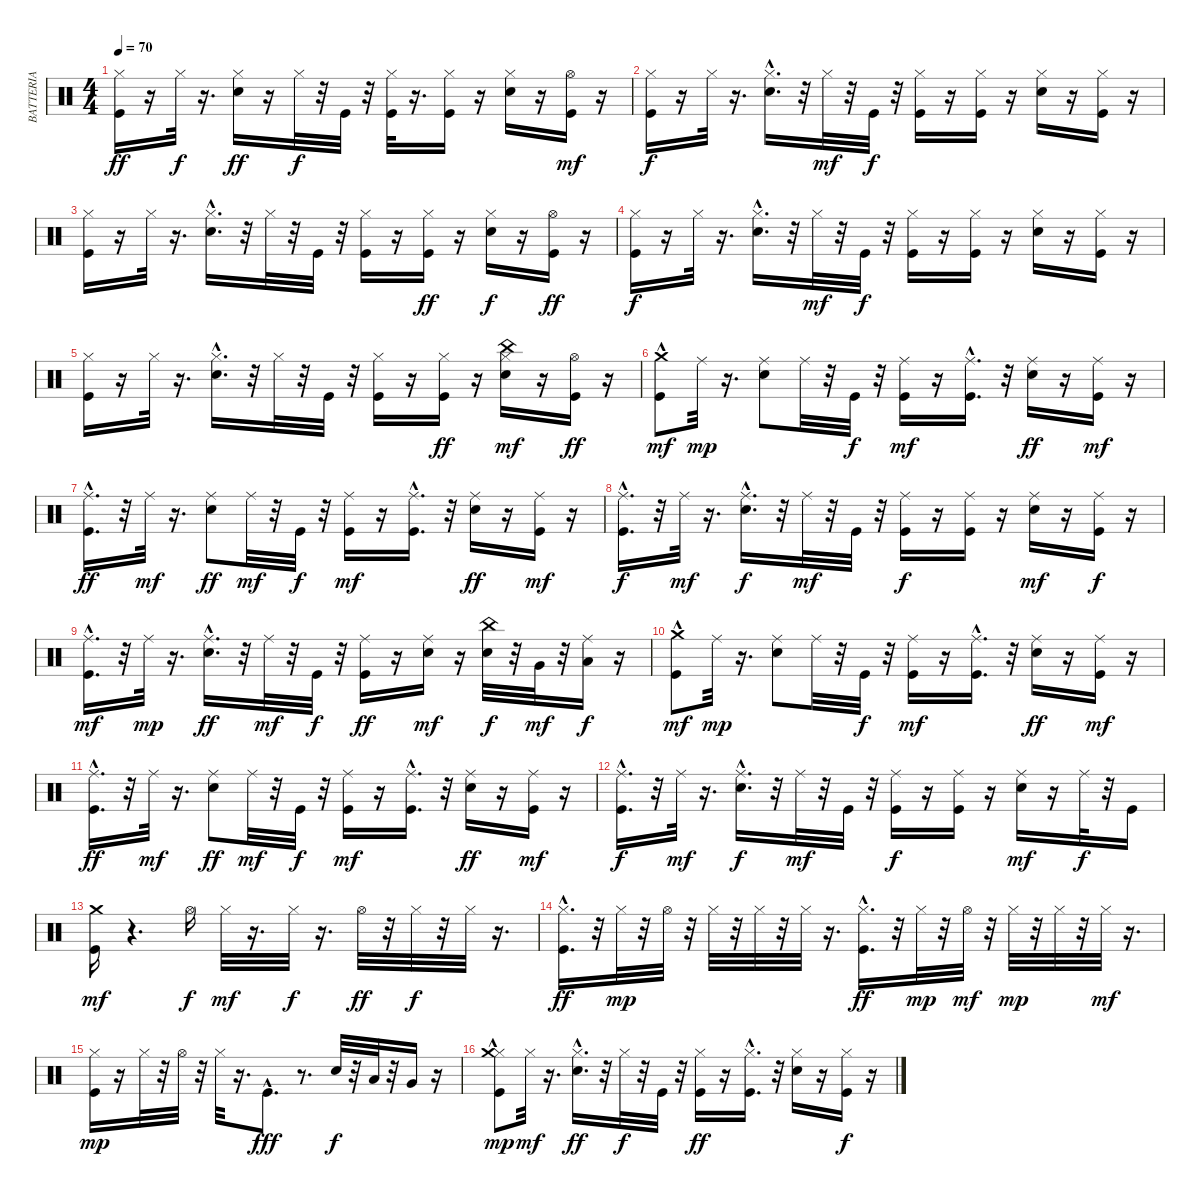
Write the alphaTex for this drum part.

\track ("BATTERIA" "BATTERIA") {instrument percussion}
\staff {score}
\articulation defaults
\ts (4 4)
\tempo 70
\clef neutral
\ks c
("Hi-Hat (closed)" "Kick (hit)").16{dy ff} r.16 "Hi-Hat (closed)".32{dy f} r.16{d} ("Hi-Hat (closed)" "Snare (hit) 2").16{dy ff} r.16 "Hi-Hat (closed)".32{dy f} r.32 "Kick (hit)".32 r.32 ("Kick (hit)" "Hi-Hat (closed)").32 r.16{d} ("Kick (hit)" "Hi-Hat (closed)").16 r.16 ("Snare (hit) 2" "Hi-Hat (closed)").16 r.16 ("Kick (hit)" "Hi-Hat (open)").16{dy mf} r.16 |
("Hi-Hat (closed)" "Kick (hit)").16{dy f} r.16 "Hi-Hat (closed)".32 r.16{d} ("Hi-Hat (closed)" "Snare (hit) 2"{hac}).16{d} r.32 "Hi-Hat (closed)".32{dy mf} r.32 "Kick (hit)".32{dy f} r.32 ("Hi-Hat (closed)" "Kick (hit)").16 r.16 ("Kick (hit)" "Hi-Hat (closed)").16 r.16 ("Snare (hit) 2" "Hi-Hat (closed)").16 r.16 ("Hi-Hat (closed)" "Kick (hit)").16 r.16 |
("Kick (hit)" "Hi-Hat (closed)").16 r.16 "Hi-Hat (closed)".32 r.16{d} ("Hi-Hat (closed)" "Snare (hit) 2"{hac}).16{d} r.32 "Hi-Hat (closed)".32 r.32 "Kick (hit)".32 r.32 ("Hi-Hat (closed)" "Kick (hit)").16 r.16 ("Kick (hit)" "Hi-Hat (closed)").16{dy ff} r.16 ("Hi-Hat (closed)" "Snare (hit) 2").16{dy f} r.16 ("Kick (hit)" "Hi-Hat (open)").16{dy ff} r.16 |
("Hi-Hat (closed)" "Kick (hit)").16{dy f} r.16 "Hi-Hat (closed)".32 r.16{d} ("Hi-Hat (closed)" "Snare (hit) 2"{hac}).16{d} r.32 "Hi-Hat (closed)".32{dy mf} r.32 "Kick (hit)".32{dy f} r.32 ("Hi-Hat (closed)" "Kick (hit)").16 r.16 ("Kick (hit)" "Hi-Hat (closed)").16 r.16 ("Snare (hit) 2" "Hi-Hat (closed)").16 r.16 ("Hi-Hat (closed)" "Kick (hit)").16 r.16 |
("Kick (hit)" "Hi-Hat (closed)").16 r.16 "Hi-Hat (closed)".32 r.16{d} ("Hi-Hat (closed)" "Snare (hit) 2"{hac}).16{d} r.32 "Hi-Hat (closed)".32 r.32 "Kick (hit)".32 r.32 ("Hi-Hat (closed)" "Kick (hit)").16 r.16 ("Kick (hit)" "Hi-Hat (closed)").16{dy ff} r.16 ("Hi-Hat (closed)" "Snare (hit) 2" "China (hit)").16{dy mf} r.16 ("Kick (hit)" "Hi-Hat (open)").16{dy ff} r.16 |
("Kick (hit)"{hac} "Crash medium (hit)").8{dy mf} "Ride (middle)".32{dy mp} r.16{d} ("Ride (middle)" "Snare (hit) 2").8 "Ride (middle)".32 r.32 "Kick (hit)".32{dy f} r.32 ("Ride (middle)" "Kick (hit)").16{dy mf} r.16 ("Ride (middle)" "Kick (hit)"{hac}).16{d} r.32 ("Ride (middle)" "Snare (hit) 2").16{dy ff} r.16 ("Ride (middle)" "Kick (hit)").16{dy mf} r.16 |
("Ride (middle)" "Kick (hit)"{hac}).16{d dy ff} r.32 "Ride (middle)".32{dy mf} r.16{d} ("Ride (middle)" "Snare (hit) 2").8{dy ff} "Ride (middle)".32{dy mf} r.32 "Kick (hit)".32{dy f} r.32 ("Ride (middle)" "Kick (hit)").16{dy mf} r.16 ("Ride (middle)" "Kick (hit)"{hac}).16{d} r.32 ("Ride (middle)" "Snare (hit) 2").16{dy ff} r.16 ("Ride (middle)" "Kick (hit)").16{dy mf} r.16 |
("Ride (middle)" "Kick (hit)"{hac}).16{d dy f} r.32 "Ride (middle)".32{dy mf} r.16{d} ("Ride (middle)" "Snare (hit) 2"{hac}).16{d dy f} r.32 "Ride (middle)".32{dy mf} r.32 "Kick (hit)".32 r.32 ("Ride (middle)" "Kick (hit)").16{dy f} r.16 ("Ride (middle)" "Kick (hit)").16 r.16 ("Ride (middle)" "Snare (hit) 2").16{dy mf} r.16 ("Ride (middle)" "Kick (hit)").16{dy f} r.16 |
("Ride (middle)" "Kick (hit)"{hac}).16{d dy mf} r.32 "Ride (middle)".32{dy mp} r.16{d} ("Ride (middle)" "Snare (hit) 2"{hac}).16{d dy ff} r.32 "Ride (middle)".32{dy mf} r.32 "Kick (hit)".32{dy f} r.32 ("Ride (middle)" "Kick (hit)").16{dy ff} r.16 ("Ride (middle)" "Snare (hit) 2").16{dy mf} r.16 ("China (hit)" "Snare (hit) 2").32{dy f} r.32 "Very Low Tom (hit)".32{dy mf} r.32 ("Ride (middle)" "Low Floor Tom (hit)").16{dy f} r.16 |
("Kick (hit)"{hac} "Crash medium (hit)").8{dy mf} "Ride (middle)".32{dy mp} r.16{d} ("Ride (middle)" "Snare (hit) 2").8 "Ride (middle)".32 r.32 "Kick (hit)".32{dy f} r.32 ("Ride (middle)" "Kick (hit)").16{dy mf} r.16 ("Ride (middle)" "Kick (hit)"{hac}).16{d} r.32 ("Ride (middle)" "Snare (hit) 2").16{dy ff} r.16 ("Ride (middle)" "Kick (hit)").16{dy mf} r.16 |
("Ride (middle)" "Kick (hit)"{hac}).16{d dy ff} r.32 "Ride (middle)".32{dy mf} r.16{d} ("Ride (middle)" "Snare (hit) 2").8{dy ff} "Ride (middle)".32{dy mf} r.32 "Kick (hit)".32{dy f} r.32 ("Ride (middle)" "Kick (hit)").16{dy mf} r.16 ("Ride (middle)" "Kick (hit)"{hac}).16{d} r.32 ("Ride (middle)" "Snare (hit) 2").16{dy ff} r.16 ("Ride (middle)" "Kick (hit)").16{dy mf} r.16 |
("Ride (middle)" "Kick (hit)"{hac}).16{d dy f} r.32 "Ride (middle)".32{dy mf} r.16{d} ("Ride (middle)" "Snare (hit) 2"{hac}).16{d dy f} r.32 "Ride (middle)".32{dy mf} r.32 "Kick (hit)".32 r.32 ("Ride (middle)" "Kick (hit)").16{dy f} r.16 ("Ride (middle)" "Kick (hit)").16 r.16 ("Ride (middle)" "Snare (hit) 2").16{dy mf} r.16 "Ride (middle)".32{dy f} r.32 "Kick (hit)".16 |
("Kick (hit)" "Crash medium (hit)").16{dy mf} r.4{d} "Hi-Hat (open)".16{dy f} "Hi-Hat (closed)".32{dy mf} r.16{d} "Hi-Hat (closed)".32{dy f} r.16{d} "Hi-Hat (open)".32{dy ff} r.32 "Hi-Hat (closed)".32{dy f} r.32 "Hi-Hat (closed)".32 r.16{d} |
("Hi-Hat (closed)" "Kick (hit)"{hac}).16{d dy ff} r.32 "Hi-Hat (closed)".32{dy mp} r.32 "Hi-Hat (open)".32 r.32 "Hi-Hat (closed)".32 r.32 "Hi-Hat (closed)".32 r.32 "Hi-Hat (closed)".32 r.16{d} ("Hi-Hat (closed)" "Kick (hit)"{hac}).16{d dy ff} r.32 "Hi-Hat (closed)".32{dy mp} r.32 "Hi-Hat (open)".32{dy mf} r.32 "Hi-Hat (closed)".32{dy mp} r.32 "Hi-Hat (closed)".32 r.32 "Hi-Hat (closed)".32{dy mf} r.16{d} |
("Kick (hit)" "Hi-Hat (closed)").16{dy mp} r.16 "Hi-Hat (closed)".32 r.32 "Hi-Hat (open)".32 r.32 "Hi-Hat (closed)".32 r.16{d} "Kick (hit)"{hac}.8{d dy fff} r.8{d} "Snare (hit) 2".32{dy f} r.32 "Low Tom (hit)".32 r.32 "Very Low Tom (hit)".16 r.16 |
("Kick (hit)"{hac} "Hi-Hat (closed)" "Crash medium (hit)").8{dy mp} "Hi-Hat (closed)".32{dy mf} r.16{d} ("Hi-Hat (closed)" "Snare (hit) 2"{hac}).16{d dy ff} r.32 "Hi-Hat (closed)".32{dy f} r.32 "Kick (hit)".32 r.32 ("Kick (hit)" "Hi-Hat (closed)").16{dy ff} r.16 ("Kick (hit)"{hac} "Hi-Hat (closed)").16{d} r.32 ("Snare (hit) 2" "Hi-Hat (closed)").16 r.16 ("Hi-Hat (closed)" "Kick (hit)").16{dy f} r.16
